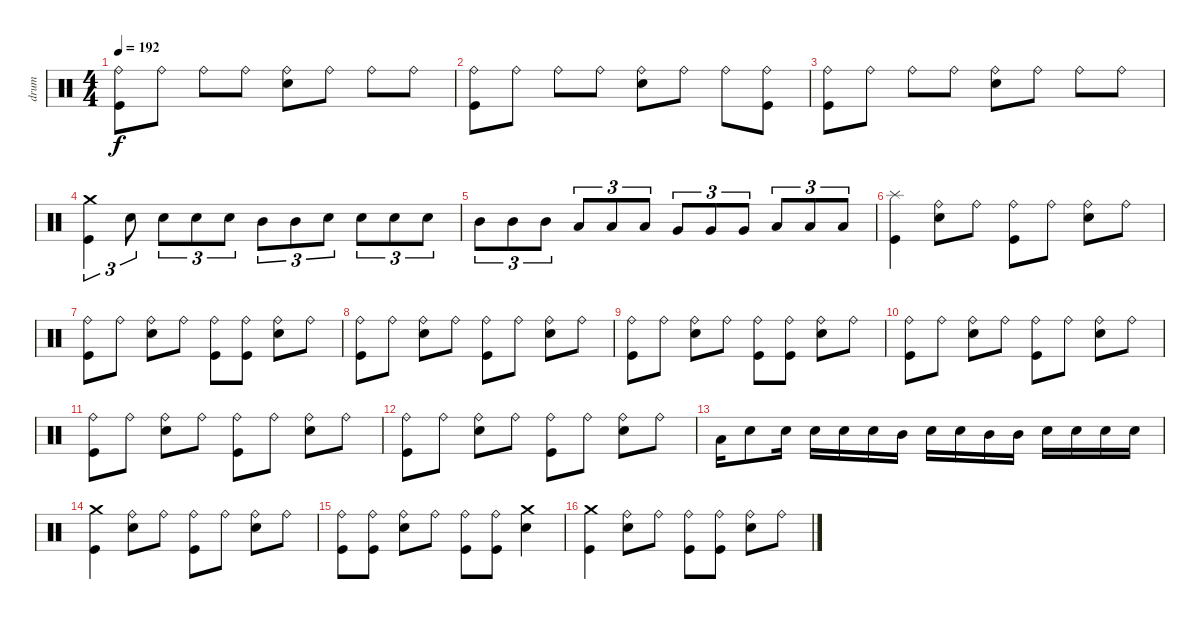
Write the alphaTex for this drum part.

\track ("drum" "drum") {instrument percussion}
\staff {score}
\articulation defaults
\ts (4 4)
\tempo 192
\clef neutral
\ks c
("Kick (hit)" "Ride (bell)").8{dy f} "Ride (bell)".8 "Ride (bell)".8 "Ride (bell)".8 ("Electric Snare (hit)" "Ride (bell)").8 "Ride (bell)".8 "Ride (bell)".8 "Ride (bell)".8 |
("Kick (hit)" "Ride (bell)").8 "Ride (bell)".8 "Ride (bell)".8 "Ride (bell)".8 ("Electric Snare (hit)" "Ride (bell)").8 "Ride (bell)".8 "Ride (bell)".8 ("Kick (hit)" "Ride (bell)").8 |
("Kick (hit)" "Ride (bell)").8 "Ride (bell)".8 "Ride (bell)".8 "Ride (bell)".8 ("Electric Snare (hit)" "Ride (bell)").8 "Ride (bell)".8 "Ride (bell)".8 "Ride (bell)".8 |
("Kick (hit)" "Crash medium (hit)").4{tu (3 2)} "Electric Snare (hit)".8{tu (3 2)} "Electric Snare (hit)".8{tu (3 2)} "Electric Snare (hit)".8{tu (3 2)} "Electric Snare (hit)".8{tu (3 2)} "Mid Tom (hit)".8{tu (3 2)} "Mid Tom (hit)".8{tu (3 2)} "Electric Snare (hit)".8{tu (3 2)} "Electric Snare (hit)".8{tu (3 2)} "Electric Snare (hit)".8{tu (3 2)} "Electric Snare (hit)".8{tu (3 2)} |
"Mid Tom (hit)".8{tu (3 2)} "Mid Tom (hit)".8{tu (3 2)} "Mid Tom (hit)".8{tu (3 2)} "Low Tom (hit)".8{tu (3 2)} "Low Tom (hit)".8{tu (3 2)} "Low Tom (hit)".8{tu (3 2)} "Very Low Tom (hit)".8{tu (3 2)} "Very Low Tom (hit)".8{tu (3 2)} "Very Low Tom (hit)".8{tu (3 2)} "Low Floor Tom (hit)".8{tu (3 2)} "Low Floor Tom (hit)".8{tu (3 2)} "Low Floor Tom (hit)".8{tu (3 2)} |
("Kick (hit)" "Splash (hit)").4 ("Electric Snare (hit)" "Ride (bell)").8 "Ride (bell)".8 ("Kick (hit)" "Ride (bell)").8 "Ride (bell)".8 ("Electric Snare (hit)" "Ride (bell)").8 "Ride (bell)".8 |
("Kick (hit)" "Ride (bell)").8 "Ride (bell)".8 ("Electric Snare (hit)" "Ride (bell)").8 "Ride (bell)".8 ("Kick (hit)" "Ride (bell)").8 ("Kick (hit)" "Ride (bell)").8 ("Electric Snare (hit)" "Ride (bell)").8 "Ride (bell)".8 |
("Kick (hit)" "Ride (bell)").8 "Ride (bell)".8 ("Electric Snare (hit)" "Ride (bell)").8 "Ride (bell)".8 ("Kick (hit)" "Ride (bell)").8 "Ride (bell)".8 ("Electric Snare (hit)" "Ride (bell)").8 "Ride (bell)".8 |
("Kick (hit)" "Ride (bell)").8 "Ride (bell)".8 ("Electric Snare (hit)" "Ride (bell)").8 "Ride (bell)".8 ("Kick (hit)" "Ride (bell)").8 ("Kick (hit)" "Ride (bell)").8 ("Electric Snare (hit)" "Ride (bell)").8 "Ride (bell)".8 |
("Kick (hit)" "Ride (bell)").8 "Ride (bell)".8 ("Electric Snare (hit)" "Ride (bell)").8 "Ride (bell)".8 ("Kick (hit)" "Ride (bell)").8 "Ride (bell)".8 ("Electric Snare (hit)" "Ride (bell)").8 "Ride (bell)".8 |
("Kick (hit)" "Ride (bell)").8 "Ride (bell)".8 ("Electric Snare (hit)" "Ride (bell)").8 "Ride (bell)".8 ("Kick (hit)" "Ride (bell)").8 "Ride (bell)".8 ("Electric Snare (hit)" "Ride (bell)").8 "Ride (bell)".8 |
("Kick (hit)" "Ride (bell)").8 "Ride (bell)".8 ("Electric Snare (hit)" "Ride (bell)").8 "Ride (bell)".8 ("Kick (hit)" "Ride (bell)").8 "Ride (bell)".8 ("Electric Snare (hit)" "Ride (bell)").8 "Ride (bell)".8 |
"Low Tom (hit)".16 "Electric Snare (hit)".8 "Electric Snare (hit)".16 "Electric Snare (hit)".16 "Electric Snare (hit)".16 "Electric Snare (hit)".16 "Mid Tom (hit)".16 "Electric Snare (hit)".16 "Electric Snare (hit)".16 "Mid Tom (hit)".16 "Mid Tom (hit)".16 "Electric Snare (hit)".16 "Electric Snare (hit)".16 "Electric Snare (hit)".16 "Electric Snare (hit)".16 |
("Kick (hit)" "Crash medium (hit)").4 ("Electric Snare (hit)" "Ride (bell)").8 "Ride (bell)".8 ("Kick (hit)" "Ride (bell)").8 "Ride (bell)".8 ("Electric Snare (hit)" "Ride (bell)").8 "Ride (bell)".8 |
("Kick (hit)" "Ride (bell)").8 ("Kick (hit)" "Ride (bell)").8 ("Electric Snare (hit)" "Ride (bell)").8 "Ride (bell)".8 ("Kick (hit)" "Ride (bell)").8 ("Kick (hit)" "Ride (bell)").8 ("Electric Snare (hit)" "Crash medium (hit)").4 |
("Kick (hit)" "Crash medium (hit)").4 ("Electric Snare (hit)" "Ride (bell)").8 "Ride (bell)".8 ("Kick (hit)" "Ride (bell)").8 ("Kick (hit)" "Ride (bell)").8 ("Electric Snare (hit)" "Ride (bell)").8 "Ride (bell)".8
